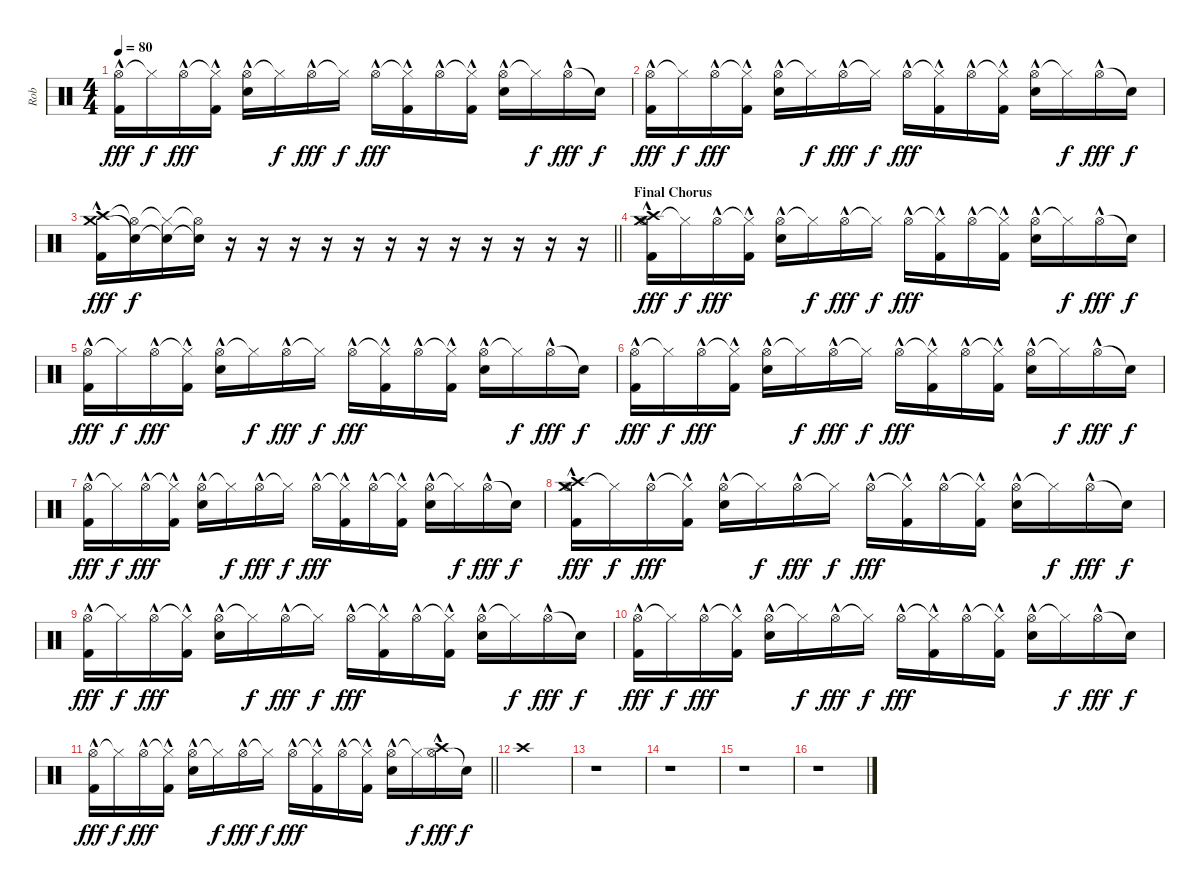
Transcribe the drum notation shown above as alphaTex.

\track ("Rob" "Rob") {instrument percussion}
\staff {score}
\articulation defaults
\ts (4 4)
\tempo 80
\clef neutral
\ks c
("Hi-Hat (open)"{hac} "Kick (hit) 2"{hac}).16{dy fff} "Hi-Hat (closed)"{t}.16{dy f} "Hi-Hat (open)"{hac}.16{dy fff} ("Hi-Hat (closed)"{t} "Kick (hit) 2"{hac}).16 ("Hi-Hat (open)"{hac} "Electric Snare (hit)"{hac}).16 "Hi-Hat (closed)"{t}.16{dy f} "Hi-Hat (open)"{hac}.16{dy fff} "Hi-Hat (closed)"{t}.16{dy f} "Hi-Hat (open)"{hac}.16{dy fff} ("Hi-Hat (closed)"{t} "Kick (hit) 2"{hac}).16 "Hi-Hat (open)"{hac}.16 ("Hi-Hat (closed)"{t} "Kick (hit) 2"{hac}).16 ("Hi-Hat (open)"{hac} "Electric Snare (hit)"{hac}).16 "Hi-Hat (closed)"{t}.16{dy f} "Hi-Hat (open)"{hac}.16{dy fff} "Snare (hit)"{t}.16{dy f} |
("Hi-Hat (open)"{hac} "Kick (hit) 2"{hac}).16{dy fff} "Hi-Hat (closed)"{t}.16{dy f} "Hi-Hat (open)"{hac}.16{dy fff} ("Hi-Hat (closed)"{t} "Kick (hit) 2"{hac}).16 ("Hi-Hat (open)"{hac} "Electric Snare (hit)"{hac}).16 "Hi-Hat (closed)"{t}.16{dy f} "Hi-Hat (open)"{hac}.16{dy fff} "Hi-Hat (closed)"{t}.16{dy f} "Hi-Hat (open)"{hac}.16{dy fff} ("Hi-Hat (closed)"{t} "Kick (hit) 2"{hac}).16 "Hi-Hat (open)"{hac}.16 ("Hi-Hat (closed)"{t} "Kick (hit) 2"{hac}).16 ("Hi-Hat (open)"{hac} "Electric Snare (hit)"{hac}).16 "Hi-Hat (closed)"{t}.16{dy f} "Hi-Hat (open)"{hac}.16{dy fff} "Snare (hit)"{t}.16{dy f} |
\barLineRight lightlight
("Crash medium (hit)"{hac} "Crash high (hit)"{hac} "Kick (hit) 2"{hac}).16{dy fff} ("Snare (hit)"{t} "Hi-Hat (open)"{t}).16{dy f} ("Snare (hit)"{t} "Hi-Hat (closed)"{t}).16 ("Snare (hit)"{t} "Hi-Hat (open)"{t}).16 r.16 r.16 r.16 r.16 r.16 r.16 r.16 r.16 r.16 r.16 r.16 r.16 |
\section ("" "Final Chorus")
("Crash medium (hit)"{hac} "Crash high (hit)"{hac} "Hi-Hat (open)"{hac} "Kick (hit) 2"{hac}).16{dy fff} "Hi-Hat (closed)"{t}.16{dy f} "Hi-Hat (open)"{hac}.16{dy fff} ("Hi-Hat (closed)"{t} "Kick (hit) 2"{hac}).16 ("Hi-Hat (open)"{hac} "Electric Snare (hit)"{hac}).16 "Hi-Hat (closed)"{t}.16{dy f} "Hi-Hat (open)"{hac}.16{dy fff} "Hi-Hat (closed)"{t}.16{dy f} "Hi-Hat (open)"{hac}.16{dy fff} ("Hi-Hat (closed)"{t} "Kick (hit) 2"{hac}).16 "Hi-Hat (open)"{hac}.16 ("Hi-Hat (closed)"{t} "Kick (hit) 2"{hac}).16 ("Hi-Hat (open)"{hac} "Electric Snare (hit)"{hac}).16 "Hi-Hat (closed)"{t}.16{dy f} "Hi-Hat (open)"{hac}.16{dy fff} "Snare (hit)"{t}.16{dy f} |
("Hi-Hat (open)"{hac} "Kick (hit) 2"{hac}).16{dy fff} "Hi-Hat (closed)"{t}.16{dy f} "Hi-Hat (open)"{hac}.16{dy fff} ("Hi-Hat (closed)"{t} "Kick (hit) 2"{hac}).16 ("Hi-Hat (open)"{hac} "Electric Snare (hit)"{hac}).16 "Hi-Hat (closed)"{t}.16{dy f} "Hi-Hat (open)"{hac}.16{dy fff} "Hi-Hat (closed)"{t}.16{dy f} "Hi-Hat (open)"{hac}.16{dy fff} ("Hi-Hat (closed)"{t} "Kick (hit) 2"{hac}).16 "Hi-Hat (open)"{hac}.16 ("Hi-Hat (closed)"{t} "Kick (hit) 2"{hac}).16 ("Hi-Hat (open)"{hac} "Electric Snare (hit)"{hac}).16 "Hi-Hat (closed)"{t}.16{dy f} "Hi-Hat (open)"{hac}.16{dy fff} "Snare (hit)"{t}.16{dy f} |
("Hi-Hat (open)"{hac} "Kick (hit) 2"{hac}).16{dy fff} "Hi-Hat (closed)"{t}.16{dy f} "Hi-Hat (open)"{hac}.16{dy fff} ("Hi-Hat (closed)"{t} "Kick (hit) 2"{hac}).16 ("Hi-Hat (open)"{hac} "Electric Snare (hit)"{hac}).16 "Hi-Hat (closed)"{t}.16{dy f} "Hi-Hat (open)"{hac}.16{dy fff} "Hi-Hat (closed)"{t}.16{dy f} "Hi-Hat (open)"{hac}.16{dy fff} ("Hi-Hat (closed)"{t} "Kick (hit) 2"{hac}).16 "Hi-Hat (open)"{hac}.16 ("Hi-Hat (closed)"{t} "Kick (hit) 2"{hac}).16 ("Hi-Hat (open)"{hac} "Electric Snare (hit)"{hac}).16 "Hi-Hat (closed)"{t}.16{dy f} "Hi-Hat (open)"{hac}.16{dy fff} "Snare (hit)"{t}.16{dy f} |
("Hi-Hat (open)"{hac} "Kick (hit) 2"{hac}).16{dy fff} "Hi-Hat (closed)"{t}.16{dy f} "Hi-Hat (open)"{hac}.16{dy fff} ("Hi-Hat (closed)"{t} "Kick (hit) 2"{hac}).16 ("Hi-Hat (open)"{hac} "Electric Snare (hit)"{hac}).16 "Hi-Hat (closed)"{t}.16{dy f} "Hi-Hat (open)"{hac}.16{dy fff} "Hi-Hat (closed)"{t}.16{dy f} "Hi-Hat (open)"{hac}.16{dy fff} ("Hi-Hat (closed)"{t} "Kick (hit) 2"{hac}).16 "Hi-Hat (open)"{hac}.16 ("Hi-Hat (closed)"{t} "Kick (hit) 2"{hac}).16 ("Hi-Hat (open)"{hac} "Electric Snare (hit)"{hac}).16 "Hi-Hat (closed)"{t}.16{dy f} "Hi-Hat (open)"{hac}.16{dy fff} "Snare (hit)"{t}.16{dy f} |
("Crash medium (hit)"{hac} "Crash high (hit)"{hac} "Hi-Hat (open)"{hac} "Kick (hit) 2"{hac}).16{dy fff} "Hi-Hat (closed)"{t}.16{dy f} "Hi-Hat (open)"{hac}.16{dy fff} ("Hi-Hat (closed)"{t} "Kick (hit) 2"{hac}).16 ("Hi-Hat (open)"{hac} "Electric Snare (hit)"{hac}).16 "Hi-Hat (closed)"{t}.16{dy f} "Hi-Hat (open)"{hac}.16{dy fff} "Hi-Hat (closed)"{t}.16{dy f} "Hi-Hat (open)"{hac}.16{dy fff} ("Hi-Hat (closed)"{t} "Kick (hit) 2"{hac}).16 "Hi-Hat (open)"{hac}.16 ("Hi-Hat (closed)"{t} "Kick (hit) 2"{hac}).16 ("Hi-Hat (open)"{hac} "Electric Snare (hit)"{hac}).16 "Hi-Hat (closed)"{t}.16{dy f} "Hi-Hat (open)"{hac}.16{dy fff} "Snare (hit)"{t}.16{dy f} |
("Hi-Hat (open)"{hac} "Kick (hit) 2"{hac}).16{dy fff} "Hi-Hat (closed)"{t}.16{dy f} "Hi-Hat (open)"{hac}.16{dy fff} ("Hi-Hat (closed)"{t} "Kick (hit) 2"{hac}).16 ("Hi-Hat (open)"{hac} "Electric Snare (hit)"{hac}).16 "Hi-Hat (closed)"{t}.16{dy f} "Hi-Hat (open)"{hac}.16{dy fff} "Hi-Hat (closed)"{t}.16{dy f} "Hi-Hat (open)"{hac}.16{dy fff} ("Hi-Hat (closed)"{t} "Kick (hit) 2"{hac}).16 "Hi-Hat (open)"{hac}.16 ("Hi-Hat (closed)"{t} "Kick (hit) 2"{hac}).16 ("Hi-Hat (open)"{hac} "Electric Snare (hit)"{hac}).16 "Hi-Hat (closed)"{t}.16{dy f} "Hi-Hat (open)"{hac}.16{dy fff} "Snare (hit)"{t}.16{dy f} |
("Hi-Hat (open)"{hac} "Kick (hit) 2"{hac}).16{dy fff} "Hi-Hat (closed)"{t}.16{dy f} "Hi-Hat (open)"{hac}.16{dy fff} ("Hi-Hat (closed)"{t} "Kick (hit) 2"{hac}).16 ("Hi-Hat (open)"{hac} "Electric Snare (hit)"{hac}).16 "Hi-Hat (closed)"{t}.16{dy f} "Hi-Hat (open)"{hac}.16{dy fff} "Hi-Hat (closed)"{t}.16{dy f} "Hi-Hat (open)"{hac}.16{dy fff} ("Hi-Hat (closed)"{t} "Kick (hit) 2"{hac}).16 "Hi-Hat (open)"{hac}.16 ("Hi-Hat (closed)"{t} "Kick (hit) 2"{hac}).16 ("Hi-Hat (open)"{hac} "Electric Snare (hit)"{hac}).16 "Hi-Hat (closed)"{t}.16{dy f} "Hi-Hat (open)"{hac}.16{dy fff} "Snare (hit)"{t}.16{dy f} |
\barLineRight lightlight
("Hi-Hat (open)"{hac} "Kick (hit) 2"{hac}).16{dy fff} "Hi-Hat (closed)"{t}.16{dy f} "Hi-Hat (open)"{hac}.16{dy fff} ("Hi-Hat (closed)"{t} "Kick (hit) 2"{hac}).16 ("Hi-Hat (open)"{hac} "Electric Snare (hit)"{hac}).16 "Hi-Hat (closed)"{t}.16{dy f} "Hi-Hat (open)"{hac}.16{dy fff} "Hi-Hat (closed)"{t}.16{dy f} "Hi-Hat (open)"{hac}.16{dy fff} ("Hi-Hat (closed)"{t} "Kick (hit) 2"{hac}).16 "Hi-Hat (open)"{hac}.16 ("Hi-Hat (closed)"{t} "Kick (hit) 2"{hac}).16 ("Hi-Hat (open)"{hac} "Electric Snare (hit)"{hac}).16 "Hi-Hat (closed)"{t}.16{dy f} ("Hi-Hat (open)"{hac} "Crash high (hit)").16{dy fff} "Snare (hit)"{t}.16{dy f} |
"Crash high (hit)".1 |
r.1 |
r.1 |
r.1 |
r.1
